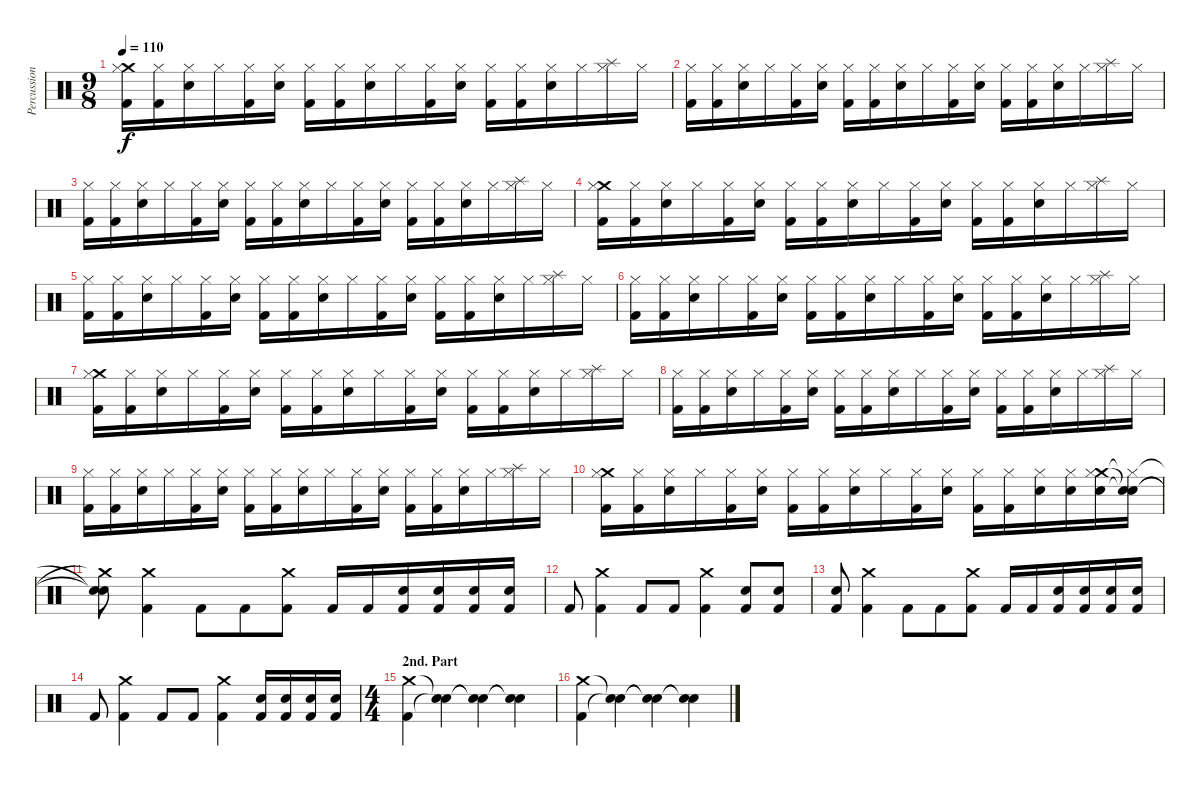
\track ("Percussion" "Percussion") {instrument percussion}
\staff {score}
\articulation defaults
\ts (9 8)
\tempo 110
\clef neutral
\ks c
("Crash medium (hit)" "Hi-Hat (closed)" "Kick (hit) 2").16{dy f} ("Hi-Hat (closed)" "Kick (hit) 2").16 ("Hi-Hat (closed)" "Electric Snare (hit)").16 "Hi-Hat (closed)".16 ("Hi-Hat (closed)" "Kick (hit) 2").16 ("Hi-Hat (closed)" "Electric Snare (hit)").16 ("Hi-Hat (closed)" "Kick (hit) 2").16 ("Hi-Hat (closed)" "Kick (hit) 2").16 ("Hi-Hat (closed)" "Snare (hit) 2").16 "Hi-Hat (closed)".16 ("Hi-Hat (closed)" "Kick (hit) 2").16 ("Hi-Hat (closed)" "Electric Snare (hit)").16 ("Hi-Hat (closed)" "Kick (hit) 2").16 ("Hi-Hat (closed)" "Kick (hit) 2").16 ("Hi-Hat (closed)" "Electric Snare (hit)").16 "Hi-Hat (closed)".16 ("Hi-Hat (closed)" "Splash (hit)").16 "Hi-Hat (closed)".16 |
("Hi-Hat (closed)" "Kick (hit) 2").16 ("Hi-Hat (closed)" "Kick (hit) 2").16 ("Hi-Hat (closed)" "Electric Snare (hit)").16 "Hi-Hat (closed)".16 ("Hi-Hat (closed)" "Kick (hit) 2").16 ("Hi-Hat (closed)" "Electric Snare (hit)").16 ("Hi-Hat (closed)" "Kick (hit) 2").16 ("Hi-Hat (closed)" "Kick (hit) 2").16 ("Hi-Hat (closed)" "Snare (hit) 2").16 "Hi-Hat (closed)".16 ("Hi-Hat (closed)" "Kick (hit) 2").16 ("Hi-Hat (closed)" "Electric Snare (hit)").16 ("Hi-Hat (closed)" "Kick (hit) 2").16 ("Hi-Hat (closed)" "Kick (hit) 2").16 ("Hi-Hat (closed)" "Electric Snare (hit)").16 "Hi-Hat (closed)".16 ("Hi-Hat (closed)" "Splash (hit)").16 "Hi-Hat (closed)".16 |
("Hi-Hat (closed)" "Kick (hit) 2").16 ("Hi-Hat (closed)" "Kick (hit) 2").16 ("Hi-Hat (closed)" "Electric Snare (hit)").16 "Hi-Hat (closed)".16 ("Hi-Hat (closed)" "Kick (hit) 2").16 ("Hi-Hat (closed)" "Electric Snare (hit)").16 ("Hi-Hat (closed)" "Kick (hit) 2").16 ("Hi-Hat (closed)" "Kick (hit) 2").16 ("Hi-Hat (closed)" "Snare (hit) 2").16 "Hi-Hat (closed)".16 ("Hi-Hat (closed)" "Kick (hit) 2").16 ("Hi-Hat (closed)" "Electric Snare (hit)").16 ("Hi-Hat (closed)" "Kick (hit) 2").16 ("Hi-Hat (closed)" "Kick (hit) 2").16 ("Hi-Hat (closed)" "Electric Snare (hit)").16 "Hi-Hat (closed)".16 ("Hi-Hat (closed)" "Splash (hit)").16 "Hi-Hat (closed)".16 |
("Crash medium (hit)" "Hi-Hat (closed)" "Kick (hit) 2").16 ("Hi-Hat (closed)" "Kick (hit) 2").16 ("Hi-Hat (closed)" "Electric Snare (hit)").16 "Hi-Hat (closed)".16 ("Hi-Hat (closed)" "Kick (hit) 2").16 ("Hi-Hat (closed)" "Electric Snare (hit)").16 ("Hi-Hat (closed)" "Kick (hit) 2").16 ("Hi-Hat (closed)" "Kick (hit) 2").16 ("Hi-Hat (closed)" "Snare (hit) 2").16 "Hi-Hat (closed)".16 ("Hi-Hat (closed)" "Kick (hit) 2").16 ("Hi-Hat (closed)" "Electric Snare (hit)").16 ("Hi-Hat (closed)" "Kick (hit) 2").16 ("Hi-Hat (closed)" "Kick (hit) 2").16 ("Hi-Hat (closed)" "Electric Snare (hit)").16 "Hi-Hat (closed)".16 ("Hi-Hat (closed)" "Splash (hit)").16 "Hi-Hat (closed)".16 |
("Hi-Hat (closed)" "Kick (hit) 2").16 ("Hi-Hat (closed)" "Kick (hit) 2").16 ("Hi-Hat (closed)" "Electric Snare (hit)").16 "Hi-Hat (closed)".16 ("Hi-Hat (closed)" "Kick (hit) 2").16 ("Hi-Hat (closed)" "Electric Snare (hit)").16 ("Hi-Hat (closed)" "Kick (hit) 2").16 ("Hi-Hat (closed)" "Kick (hit) 2").16 ("Hi-Hat (closed)" "Snare (hit) 2").16 "Hi-Hat (closed)".16 ("Hi-Hat (closed)" "Kick (hit) 2").16 ("Hi-Hat (closed)" "Electric Snare (hit)").16 ("Hi-Hat (closed)" "Kick (hit) 2").16 ("Hi-Hat (closed)" "Kick (hit) 2").16 ("Hi-Hat (closed)" "Electric Snare (hit)").16 "Hi-Hat (closed)".16 ("Hi-Hat (closed)" "Splash (hit)").16 "Hi-Hat (closed)".16 |
("Hi-Hat (closed)" "Kick (hit) 2").16 ("Hi-Hat (closed)" "Kick (hit) 2").16 ("Hi-Hat (closed)" "Electric Snare (hit)").16 "Hi-Hat (closed)".16 ("Hi-Hat (closed)" "Kick (hit) 2").16 ("Hi-Hat (closed)" "Electric Snare (hit)").16 ("Hi-Hat (closed)" "Kick (hit) 2").16 ("Hi-Hat (closed)" "Kick (hit) 2").16 ("Hi-Hat (closed)" "Snare (hit) 2").16 "Hi-Hat (closed)".16 ("Hi-Hat (closed)" "Kick (hit) 2").16 ("Hi-Hat (closed)" "Electric Snare (hit)").16 ("Hi-Hat (closed)" "Kick (hit) 2").16 ("Hi-Hat (closed)" "Kick (hit) 2").16 ("Hi-Hat (closed)" "Electric Snare (hit)").16 "Hi-Hat (closed)".16 ("Hi-Hat (closed)" "Splash (hit)").16 "Hi-Hat (closed)".16 |
("Crash medium (hit)" "Hi-Hat (closed)" "Kick (hit) 2").16 ("Hi-Hat (closed)" "Kick (hit) 2").16 ("Hi-Hat (closed)" "Electric Snare (hit)").16 "Hi-Hat (closed)".16 ("Hi-Hat (closed)" "Kick (hit) 2").16 ("Hi-Hat (closed)" "Electric Snare (hit)").16 ("Hi-Hat (closed)" "Kick (hit) 2").16 ("Hi-Hat (closed)" "Kick (hit) 2").16 ("Hi-Hat (closed)" "Snare (hit) 2").16 "Hi-Hat (closed)".16 ("Hi-Hat (closed)" "Kick (hit) 2").16 ("Hi-Hat (closed)" "Electric Snare (hit)").16 ("Hi-Hat (closed)" "Kick (hit) 2").16 ("Hi-Hat (closed)" "Kick (hit) 2").16 ("Hi-Hat (closed)" "Electric Snare (hit)").16 "Hi-Hat (closed)".16 ("Hi-Hat (closed)" "Splash (hit)").16 "Hi-Hat (closed)".16 |
("Hi-Hat (closed)" "Kick (hit) 2").16 ("Hi-Hat (closed)" "Kick (hit) 2").16 ("Hi-Hat (closed)" "Electric Snare (hit)").16 "Hi-Hat (closed)".16 ("Hi-Hat (closed)" "Kick (hit) 2").16 ("Hi-Hat (closed)" "Electric Snare (hit)").16 ("Hi-Hat (closed)" "Kick (hit) 2").16 ("Hi-Hat (closed)" "Kick (hit) 2").16 ("Hi-Hat (closed)" "Snare (hit) 2").16 "Hi-Hat (closed)".16 ("Hi-Hat (closed)" "Kick (hit) 2").16 ("Hi-Hat (closed)" "Electric Snare (hit)").16 ("Hi-Hat (closed)" "Kick (hit) 2").16 ("Hi-Hat (closed)" "Kick (hit) 2").16 ("Hi-Hat (closed)" "Electric Snare (hit)").16 "Hi-Hat (closed)".16 ("Hi-Hat (closed)" "Splash (hit)").16 "Hi-Hat (closed)".16 |
("Hi-Hat (closed)" "Kick (hit) 2").16 ("Hi-Hat (closed)" "Kick (hit) 2").16 ("Hi-Hat (closed)" "Electric Snare (hit)").16 "Hi-Hat (closed)".16 ("Hi-Hat (closed)" "Kick (hit) 2").16 ("Hi-Hat (closed)" "Electric Snare (hit)").16 ("Hi-Hat (closed)" "Kick (hit) 2").16 ("Hi-Hat (closed)" "Kick (hit) 2").16 ("Hi-Hat (closed)" "Snare (hit) 2").16 "Hi-Hat (closed)".16 ("Hi-Hat (closed)" "Kick (hit) 2").16 ("Hi-Hat (closed)" "Electric Snare (hit)").16 ("Hi-Hat (closed)" "Kick (hit) 2").16 ("Hi-Hat (closed)" "Kick (hit) 2").16 ("Hi-Hat (closed)" "Electric Snare (hit)").16 "Hi-Hat (closed)".16 ("Hi-Hat (closed)" "Splash (hit)").16 "Hi-Hat (closed)".16 |
("Crash medium (hit)" "Hi-Hat (closed)" "Kick (hit) 2").16 ("Hi-Hat (closed)" "Kick (hit) 2").16 ("Hi-Hat (closed)" "Electric Snare (hit)").16 "Hi-Hat (closed)".16 ("Hi-Hat (closed)" "Kick (hit) 2").16 ("Hi-Hat (closed)" "Electric Snare (hit)").16 ("Hi-Hat (closed)" "Kick (hit) 2").16 ("Hi-Hat (closed)" "Kick (hit) 2").16 ("Hi-Hat (closed)" "Snare (hit) 2").16 "Hi-Hat (closed)".16 ("Hi-Hat (closed)" "Kick (hit) 2").16 ("Hi-Hat (closed)" "Electric Snare (hit)").16 ("Hi-Hat (closed)" "Kick (hit) 2").16 ("Hi-Hat (closed)" "Kick (hit) 2").16 ("Hi-Hat (closed)" "Electric Snare (hit)").16 ("Hi-Hat (closed)" "Electric Snare (hit)").16 ("Crash medium (hit)" "Hi-Hat (closed)" "Electric Snare (hit)").16 ("Snare (hit)"{t} "Hi-Hat (closed)"{t} "Electric Snare (hit)"{t}).16 |
("Crash medium (hit)"{t} "Snare (hit)"{t} "Snare (hit)"{t}).8 ("Crash medium (hit)" "Kick (hit) 2").4 "Kick (hit) 2".8 "Kick (hit) 2".8 ("Crash medium (hit)" "Kick (hit) 2").8 "Kick (hit) 2".16 "Kick (hit) 2".16 ("Snare (hit) 2" "Kick (hit) 2").16 ("Electric Snare (hit)" "Kick (hit) 2").16 ("Electric Snare (hit)" "Kick (hit) 2").16 ("Electric Snare (hit)" "Kick (hit) 2").16 |
"Kick (hit) 2".8 ("Crash medium (hit)" "Kick (hit) 2").4 "Kick (hit) 2".8 "Kick (hit) 2".8 ("Crash medium (hit)" "Kick (hit) 2").4 ("Kick (hit) 2" "Snare (hit) 2").8 ("Kick (hit) 2" "Snare (hit) 2").8 |
("Kick (hit) 2" "Snare (hit) 2").8 ("Crash medium (hit)" "Kick (hit) 2").4 "Kick (hit) 2".8 "Kick (hit) 2".8 ("Crash medium (hit)" "Kick (hit) 2").8 "Kick (hit) 2".16 "Kick (hit) 2".16 ("Snare (hit) 2" "Kick (hit) 2").16 ("Electric Snare (hit)" "Kick (hit) 2").16 ("Electric Snare (hit)" "Kick (hit) 2").16 ("Electric Snare (hit)" "Kick (hit) 2").16 |
"Kick (hit) 2".8 ("Crash medium (hit)" "Kick (hit) 2").4 "Kick (hit) 2".8 "Kick (hit) 2".8 ("Crash medium (hit)" "Kick (hit) 2").4 ("Kick (hit) 2" "Snare (hit) 2").16 ("Kick (hit) 2" "Snare (hit) 2").16 ("Kick (hit) 2" "Snare (hit) 2").16 ("Kick (hit) 2" "Snare (hit) 2").16 |
\ts (4 4)
\section ("" "2nd. Part")
("Crash medium (hit)" "Kick (hit) 2").4 ("Snare (hit)"{t} "Snare (hit)"{t}).4 ("Snare (hit)"{t} "Snare (hit)"{t}).4 ("Snare (hit)"{t} "Snare (hit)"{t}).4 |
("Crash medium (hit)" "Kick (hit) 2").4 ("Snare (hit)"{t} "Snare (hit)"{t}).4 ("Snare (hit)"{t} "Snare (hit)"{t}).4 ("Snare (hit)"{t} "Snare (hit)"{t}).4
